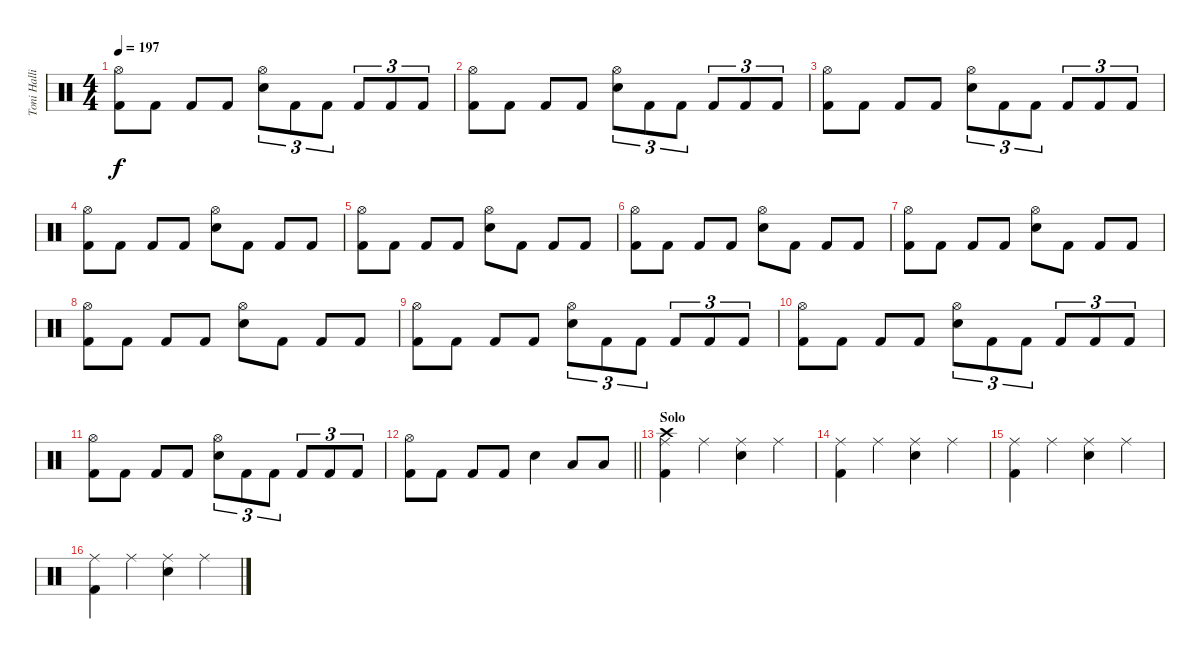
\track ("Toni Hallio" "Toni Halli") {instrument percussion}
\staff {score}
\articulation defaults
\ts (4 4)
\tempo 197
\clef neutral
\ks c
("Hi-Hat (open)" "Kick (hit) 2").8{dy f} "Kick (hit) 2".8 "Kick (hit) 2".8 "Kick (hit) 2".8 ("Hi-Hat (open)" "Snare (hit) 2").8{tu (3 2)} "Kick (hit) 2".8{tu (3 2)} "Kick (hit) 2".8{tu (3 2)} "Kick (hit) 2".8{tu (3 2)} "Kick (hit) 2".8{tu (3 2)} "Kick (hit) 2".8{tu (3 2)} |
("Hi-Hat (open)" "Kick (hit) 2").8 "Kick (hit) 2".8 "Kick (hit) 2".8 "Kick (hit) 2".8 ("Hi-Hat (open)" "Snare (hit) 2").8{tu (3 2)} "Kick (hit) 2".8{tu (3 2)} "Kick (hit) 2".8{tu (3 2)} "Kick (hit) 2".8{tu (3 2)} "Kick (hit) 2".8{tu (3 2)} "Kick (hit) 2".8{tu (3 2)} |
("Hi-Hat (open)" "Kick (hit) 2").8 "Kick (hit) 2".8 "Kick (hit) 2".8 "Kick (hit) 2".8 ("Hi-Hat (open)" "Snare (hit) 2").8{tu (3 2)} "Kick (hit) 2".8{tu (3 2)} "Kick (hit) 2".8{tu (3 2)} "Kick (hit) 2".8{tu (3 2)} "Kick (hit) 2".8{tu (3 2)} "Kick (hit) 2".8{tu (3 2)} |
("Hi-Hat (open)" "Kick (hit) 2").8 "Kick (hit) 2".8 "Kick (hit) 2".8 "Kick (hit) 2".8 ("Hi-Hat (open)" "Snare (hit) 2").8 "Kick (hit) 2".8 "Kick (hit) 2".8 "Kick (hit) 2".8 |
("Hi-Hat (open)" "Kick (hit) 2").8 "Kick (hit) 2".8 "Kick (hit) 2".8 "Kick (hit) 2".8 ("Hi-Hat (open)" "Snare (hit) 2").8 "Kick (hit) 2".8 "Kick (hit) 2".8 "Kick (hit) 2".8 |
("Hi-Hat (open)" "Kick (hit) 2").8 "Kick (hit) 2".8 "Kick (hit) 2".8 "Kick (hit) 2".8 ("Hi-Hat (open)" "Snare (hit) 2").8 "Kick (hit) 2".8 "Kick (hit) 2".8 "Kick (hit) 2".8 |
("Hi-Hat (open)" "Kick (hit) 2").8 "Kick (hit) 2".8 "Kick (hit) 2".8 "Kick (hit) 2".8 ("Hi-Hat (open)" "Snare (hit) 2").8 "Kick (hit) 2".8 "Kick (hit) 2".8 "Kick (hit) 2".8 |
("Hi-Hat (open)" "Kick (hit) 2").8 "Kick (hit) 2".8 "Kick (hit) 2".8 "Kick (hit) 2".8 ("Hi-Hat (open)" "Snare (hit) 2").8 "Kick (hit) 2".8 "Kick (hit) 2".8 "Kick (hit) 2".8 |
("Hi-Hat (open)" "Kick (hit) 2").8 "Kick (hit) 2".8 "Kick (hit) 2".8 "Kick (hit) 2".8 ("Hi-Hat (open)" "Snare (hit) 2").8{tu (3 2)} "Kick (hit) 2".8{tu (3 2)} "Kick (hit) 2".8{tu (3 2)} "Kick (hit) 2".8{tu (3 2)} "Kick (hit) 2".8{tu (3 2)} "Kick (hit) 2".8{tu (3 2)} |
("Hi-Hat (open)" "Kick (hit) 2").8 "Kick (hit) 2".8 "Kick (hit) 2".8 "Kick (hit) 2".8 ("Hi-Hat (open)" "Snare (hit) 2").8{tu (3 2)} "Kick (hit) 2".8{tu (3 2)} "Kick (hit) 2".8{tu (3 2)} "Kick (hit) 2".8{tu (3 2)} "Kick (hit) 2".8{tu (3 2)} "Kick (hit) 2".8{tu (3 2)} |
("Hi-Hat (open)" "Kick (hit) 2").8 "Kick (hit) 2".8 "Kick (hit) 2".8 "Kick (hit) 2".8 ("Hi-Hat (open)" "Snare (hit) 2").8{tu (3 2)} "Kick (hit) 2".8{tu (3 2)} "Kick (hit) 2".8{tu (3 2)} "Kick (hit) 2".8{tu (3 2)} "Kick (hit) 2".8{tu (3 2)} "Kick (hit) 2".8{tu (3 2)} |
\barLineRight lightlight
("Hi-Hat (open)" "Kick (hit) 2").8 "Kick (hit) 2".8 "Kick (hit) 2".8 "Kick (hit) 2".8 "Snare (hit) 2".4 "Low Tom (hit)".8 "Low Tom (hit)".8 |
\section ("" "Solo")
("Ride (middle)" "Crash high (hit)" "Kick (hit) 2").4 "Ride (middle)".4 ("Ride (middle)" "Snare (hit) 2").4 "Ride (middle)".4 |
("Ride (middle)" "Kick (hit) 2").4 "Ride (middle)".4 ("Ride (middle)" "Snare (hit) 2").4 "Ride (middle)".4 |
("Ride (middle)" "Kick (hit) 2").4 "Ride (middle)".4 ("Ride (middle)" "Snare (hit) 2").4 "Ride (middle)".4 |
("Ride (middle)" "Kick (hit) 2").4 "Ride (middle)".4 ("Ride (middle)" "Snare (hit) 2").4 "Ride (middle)".4
